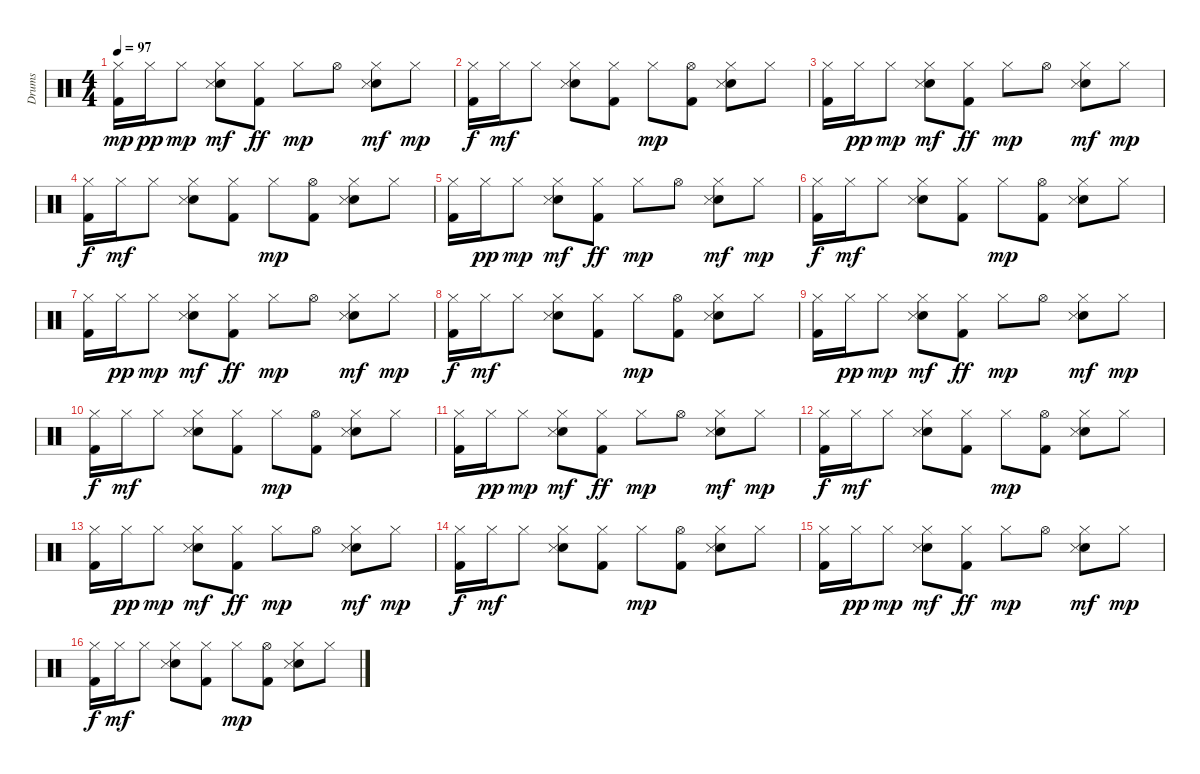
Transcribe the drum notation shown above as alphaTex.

\track ("Drums" "Drums") {instrument percussion}
\staff {score}
\articulation defaults
\ts (4 4)
\tempo 97
\clef neutral
\ks c
("Hi-Hat (closed)" "Kick (hit) 2").16{dy mp} "Hi-Hat (closed)".16{dy pp} "Hi-Hat (closed)".8{dy mp} ("Hi-Hat (closed)" "Hand Clap (hit)" "Snare (side stick) 3").8{dy mf} ("Hi-Hat (closed)" "Kick (hit) 2").8{dy ff} "Hi-Hat (closed)".8{dy mp} "Hi-Hat (open)".8 ("Hi-Hat (closed)" "Hand Clap (hit)" "Snare (side stick) 3").8{dy mf} "Hi-Hat (closed)".8{dy mp} |
("Hi-Hat (closed)" "Kick (hit) 2").16{dy f} "Hi-Hat (closed)".16{dy mf} "Hi-Hat (closed)".8 ("Hi-Hat (closed)" "Hand Clap (hit)" "Snare (side stick) 3").8 ("Hi-Hat (closed)" "Kick (hit) 2").8 "Hi-Hat (closed)".8{dy mp} ("Kick (hit) 2" "Hi-Hat (open)").8 ("Hi-Hat (closed)" "Hand Clap (hit)" "Snare (side stick) 3").8 "Hi-Hat (closed)".8 |
("Hi-Hat (closed)" "Kick (hit) 2").16 "Hi-Hat (closed)".16{dy pp} "Hi-Hat (closed)".8{dy mp} ("Hi-Hat (closed)" "Hand Clap (hit)" "Snare (side stick) 3").8{dy mf} ("Hi-Hat (closed)" "Kick (hit) 2").8{dy ff} "Hi-Hat (closed)".8{dy mp} "Hi-Hat (open)".8 ("Hi-Hat (closed)" "Hand Clap (hit)" "Snare (side stick) 3").8{dy mf} "Hi-Hat (closed)".8{dy mp} |
("Hi-Hat (closed)" "Kick (hit) 2").16{dy f} "Hi-Hat (closed)".16{dy mf} "Hi-Hat (closed)".8 ("Hi-Hat (closed)" "Hand Clap (hit)" "Snare (side stick) 3").8 ("Hi-Hat (closed)" "Kick (hit) 2").8 "Hi-Hat (closed)".8{dy mp} ("Kick (hit) 2" "Hi-Hat (open)").8 ("Hi-Hat (closed)" "Hand Clap (hit)" "Snare (side stick) 3").8 "Hi-Hat (closed)".8 |
("Hi-Hat (closed)" "Kick (hit) 2").16 "Hi-Hat (closed)".16{dy pp} "Hi-Hat (closed)".8{dy mp} ("Hi-Hat (closed)" "Hand Clap (hit)" "Snare (side stick) 3").8{dy mf} ("Hi-Hat (closed)" "Kick (hit) 2").8{dy ff} "Hi-Hat (closed)".8{dy mp} "Hi-Hat (open)".8 ("Hi-Hat (closed)" "Hand Clap (hit)" "Snare (side stick) 3").8{dy mf} "Hi-Hat (closed)".8{dy mp} |
("Hi-Hat (closed)" "Kick (hit) 2").16{dy f} "Hi-Hat (closed)".16{dy mf} "Hi-Hat (closed)".8 ("Hi-Hat (closed)" "Hand Clap (hit)" "Snare (side stick) 3").8 ("Hi-Hat (closed)" "Kick (hit) 2").8 "Hi-Hat (closed)".8{dy mp} ("Kick (hit) 2" "Hi-Hat (open)").8 ("Hi-Hat (closed)" "Hand Clap (hit)" "Snare (side stick) 3").8 "Hi-Hat (closed)".8 |
("Hi-Hat (closed)" "Kick (hit) 2").16 "Hi-Hat (closed)".16{dy pp} "Hi-Hat (closed)".8{dy mp} ("Hi-Hat (closed)" "Hand Clap (hit)" "Snare (side stick) 3").8{dy mf} ("Hi-Hat (closed)" "Kick (hit) 2").8{dy ff} "Hi-Hat (closed)".8{dy mp} "Hi-Hat (open)".8 ("Hi-Hat (closed)" "Hand Clap (hit)" "Snare (side stick) 3").8{dy mf} "Hi-Hat (closed)".8{dy mp} |
("Hi-Hat (closed)" "Kick (hit) 2").16{dy f} "Hi-Hat (closed)".16{dy mf} "Hi-Hat (closed)".8 ("Hi-Hat (closed)" "Hand Clap (hit)" "Snare (side stick) 3").8 ("Hi-Hat (closed)" "Kick (hit) 2").8 "Hi-Hat (closed)".8{dy mp} ("Kick (hit) 2" "Hi-Hat (open)").8 ("Hi-Hat (closed)" "Hand Clap (hit)" "Snare (side stick) 3").8 "Hi-Hat (closed)".8 |
("Hi-Hat (closed)" "Kick (hit) 2").16 "Hi-Hat (closed)".16{dy pp} "Hi-Hat (closed)".8{dy mp} ("Hi-Hat (closed)" "Hand Clap (hit)" "Snare (side stick) 3").8{dy mf} ("Hi-Hat (closed)" "Kick (hit) 2").8{dy ff} "Hi-Hat (closed)".8{dy mp} "Hi-Hat (open)".8 ("Hi-Hat (closed)" "Hand Clap (hit)" "Snare (side stick) 3").8{dy mf} "Hi-Hat (closed)".8{dy mp} |
("Hi-Hat (closed)" "Kick (hit) 2").16{dy f} "Hi-Hat (closed)".16{dy mf} "Hi-Hat (closed)".8 ("Hi-Hat (closed)" "Hand Clap (hit)" "Snare (side stick) 3").8 ("Hi-Hat (closed)" "Kick (hit) 2").8 "Hi-Hat (closed)".8{dy mp} ("Kick (hit) 2" "Hi-Hat (open)").8 ("Hi-Hat (closed)" "Hand Clap (hit)" "Snare (side stick) 3").8 "Hi-Hat (closed)".8 |
("Hi-Hat (closed)" "Kick (hit) 2").16 "Hi-Hat (closed)".16{dy pp} "Hi-Hat (closed)".8{dy mp} ("Hi-Hat (closed)" "Hand Clap (hit)" "Snare (side stick) 3").8{dy mf} ("Hi-Hat (closed)" "Kick (hit) 2").8{dy ff} "Hi-Hat (closed)".8{dy mp} "Hi-Hat (open)".8 ("Hi-Hat (closed)" "Hand Clap (hit)" "Snare (side stick) 3").8{dy mf} "Hi-Hat (closed)".8{dy mp} |
("Hi-Hat (closed)" "Kick (hit) 2").16{dy f} "Hi-Hat (closed)".16{dy mf} "Hi-Hat (closed)".8 ("Hi-Hat (closed)" "Hand Clap (hit)" "Snare (side stick) 3").8 ("Hi-Hat (closed)" "Kick (hit) 2").8 "Hi-Hat (closed)".8{dy mp} ("Kick (hit) 2" "Hi-Hat (open)").8 ("Hi-Hat (closed)" "Hand Clap (hit)" "Snare (side stick) 3").8 "Hi-Hat (closed)".8 |
("Hi-Hat (closed)" "Kick (hit) 2").16 "Hi-Hat (closed)".16{dy pp} "Hi-Hat (closed)".8{dy mp} ("Hi-Hat (closed)" "Hand Clap (hit)" "Snare (side stick) 3").8{dy mf} ("Hi-Hat (closed)" "Kick (hit) 2").8{dy ff} "Hi-Hat (closed)".8{dy mp} "Hi-Hat (open)".8 ("Hi-Hat (closed)" "Hand Clap (hit)" "Snare (side stick) 3").8{dy mf} "Hi-Hat (closed)".8{dy mp} |
("Hi-Hat (closed)" "Kick (hit) 2").16{dy f} "Hi-Hat (closed)".16{dy mf} "Hi-Hat (closed)".8 ("Hi-Hat (closed)" "Hand Clap (hit)" "Snare (side stick) 3").8 ("Hi-Hat (closed)" "Kick (hit) 2").8 "Hi-Hat (closed)".8{dy mp} ("Kick (hit) 2" "Hi-Hat (open)").8 ("Hi-Hat (closed)" "Hand Clap (hit)" "Snare (side stick) 3").8 "Hi-Hat (closed)".8 |
("Hi-Hat (closed)" "Kick (hit) 2").16 "Hi-Hat (closed)".16{dy pp} "Hi-Hat (closed)".8{dy mp} ("Hi-Hat (closed)" "Hand Clap (hit)" "Snare (side stick) 3").8{dy mf} ("Hi-Hat (closed)" "Kick (hit) 2").8{dy ff} "Hi-Hat (closed)".8{dy mp} "Hi-Hat (open)".8 ("Hi-Hat (closed)" "Hand Clap (hit)" "Snare (side stick) 3").8{dy mf} "Hi-Hat (closed)".8{dy mp} |
("Hi-Hat (closed)" "Kick (hit) 2").16{dy f} "Hi-Hat (closed)".16{dy mf} "Hi-Hat (closed)".8 ("Hi-Hat (closed)" "Hand Clap (hit)" "Snare (side stick) 3").8 ("Hi-Hat (closed)" "Kick (hit) 2").8 "Hi-Hat (closed)".8{dy mp} ("Kick (hit) 2" "Hi-Hat (open)").8 ("Hi-Hat (closed)" "Hand Clap (hit)" "Snare (side stick) 3").8 "Hi-Hat (closed)".8
